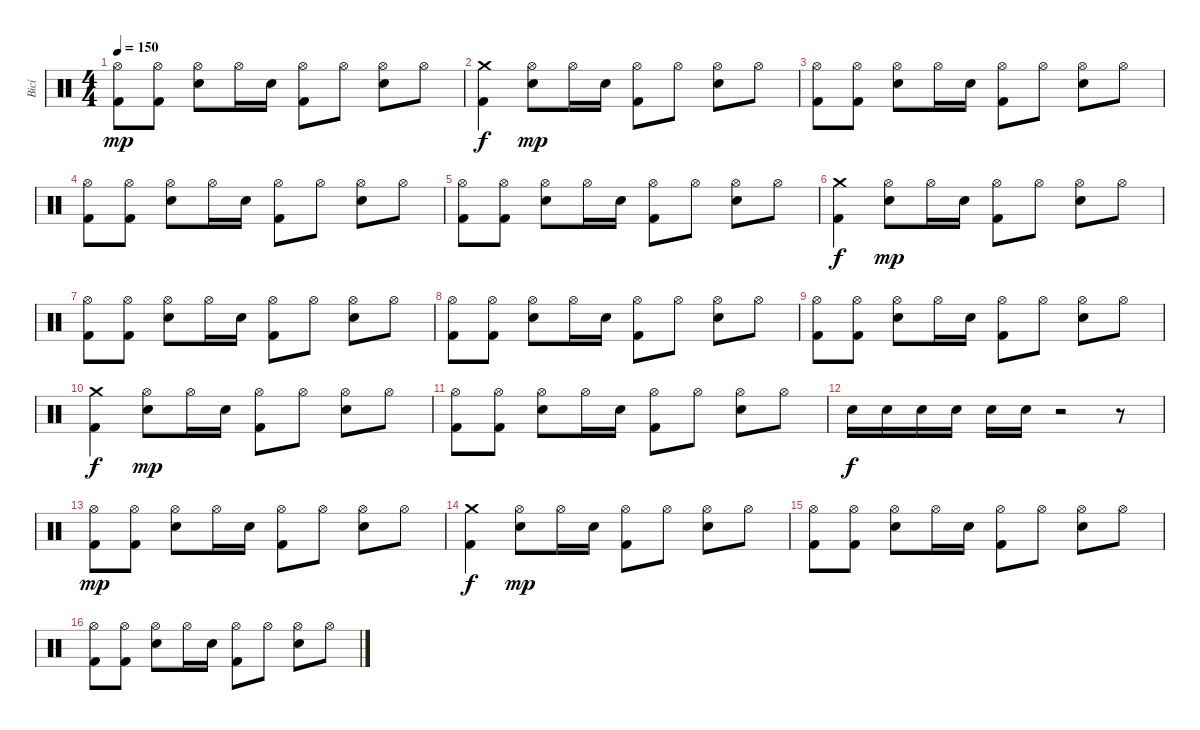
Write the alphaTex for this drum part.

\track ("Bicí" "Bicí") {instrument percussion}
\staff {score}
\articulation defaults
\ts (4 4)
\tempo 150
\clef neutral
\ks c
("Hi-Hat (open)" "Kick (hit) 2").8{dy mp} ("Hi-Hat (open)" "Kick (hit) 2").8 ("Hi-Hat (open)" "Electric Snare (hit)").8 "Hi-Hat (open)".16 "Electric Snare (hit)".16 ("Hi-Hat (open)" "Kick (hit) 2").8 "Hi-Hat (open)".8 ("Hi-Hat (open)" "Electric Snare (hit)").8 "Hi-Hat (open)".8 |
("Crash medium (hit)" "Kick (hit) 2").4{dy f} ("Hi-Hat (open)" "Electric Snare (hit)").8{dy mp} "Hi-Hat (open)".16 "Electric Snare (hit)".16 ("Hi-Hat (open)" "Kick (hit) 2").8 "Hi-Hat (open)".8 ("Hi-Hat (open)" "Electric Snare (hit)").8 "Hi-Hat (open)".8 |
("Hi-Hat (open)" "Kick (hit) 2").8 ("Hi-Hat (open)" "Kick (hit) 2").8 ("Hi-Hat (open)" "Electric Snare (hit)").8 "Hi-Hat (open)".16 "Electric Snare (hit)".16 ("Hi-Hat (open)" "Kick (hit) 2").8 "Hi-Hat (open)".8 ("Hi-Hat (open)" "Electric Snare (hit)").8 "Hi-Hat (open)".8 |
("Hi-Hat (open)" "Kick (hit) 2").8 ("Hi-Hat (open)" "Kick (hit) 2").8 ("Hi-Hat (open)" "Electric Snare (hit)").8 "Hi-Hat (open)".16 "Electric Snare (hit)".16 ("Hi-Hat (open)" "Kick (hit) 2").8 "Hi-Hat (open)".8 ("Hi-Hat (open)" "Electric Snare (hit)").8 "Hi-Hat (open)".8 |
("Hi-Hat (open)" "Kick (hit) 2").8 ("Hi-Hat (open)" "Kick (hit) 2").8 ("Hi-Hat (open)" "Electric Snare (hit)").8 "Hi-Hat (open)".16 "Electric Snare (hit)".16 ("Hi-Hat (open)" "Kick (hit) 2").8 "Hi-Hat (open)".8 ("Hi-Hat (open)" "Electric Snare (hit)").8 "Hi-Hat (open)".8 |
("Crash medium (hit)" "Kick (hit) 2").4{dy f} ("Hi-Hat (open)" "Electric Snare (hit)").8{dy mp} "Hi-Hat (open)".16 "Electric Snare (hit)".16 ("Hi-Hat (open)" "Kick (hit) 2").8 "Hi-Hat (open)".8 ("Hi-Hat (open)" "Electric Snare (hit)").8 "Hi-Hat (open)".8 |
("Hi-Hat (open)" "Kick (hit) 2").8 ("Hi-Hat (open)" "Kick (hit) 2").8 ("Hi-Hat (open)" "Electric Snare (hit)").8 "Hi-Hat (open)".16 "Electric Snare (hit)".16 ("Hi-Hat (open)" "Kick (hit) 2").8 "Hi-Hat (open)".8 ("Hi-Hat (open)" "Electric Snare (hit)").8 "Hi-Hat (open)".8 |
("Hi-Hat (open)" "Kick (hit) 2").8 ("Hi-Hat (open)" "Kick (hit) 2").8 ("Hi-Hat (open)" "Electric Snare (hit)").8 "Hi-Hat (open)".16 "Electric Snare (hit)".16 ("Hi-Hat (open)" "Kick (hit) 2").8 "Hi-Hat (open)".8 ("Hi-Hat (open)" "Electric Snare (hit)").8 "Hi-Hat (open)".8 |
("Hi-Hat (open)" "Kick (hit) 2").8 ("Hi-Hat (open)" "Kick (hit) 2").8 ("Hi-Hat (open)" "Electric Snare (hit)").8 "Hi-Hat (open)".16 "Electric Snare (hit)".16 ("Hi-Hat (open)" "Kick (hit) 2").8 "Hi-Hat (open)".8 ("Hi-Hat (open)" "Electric Snare (hit)").8 "Hi-Hat (open)".8 |
("Crash medium (hit)" "Kick (hit) 2").4{dy f} ("Hi-Hat (open)" "Electric Snare (hit)").8{dy mp} "Hi-Hat (open)".16 "Electric Snare (hit)".16 ("Hi-Hat (open)" "Kick (hit) 2").8 "Hi-Hat (open)".8 ("Hi-Hat (open)" "Electric Snare (hit)").8 "Hi-Hat (open)".8 |
("Hi-Hat (open)" "Kick (hit) 2").8 ("Hi-Hat (open)" "Kick (hit) 2").8 ("Hi-Hat (open)" "Electric Snare (hit)").8 "Hi-Hat (open)".16 "Electric Snare (hit)".16 ("Hi-Hat (open)" "Kick (hit) 2").8 "Hi-Hat (open)".8 ("Hi-Hat (open)" "Electric Snare (hit)").8 "Hi-Hat (open)".8 |
"Snare (hit) 2".16{dy f} "Snare (hit) 2".16 "Snare (hit) 2".16 "Snare (hit) 2".16 "Snare (hit) 2".16 "Snare (hit) 2".16 r.2 r.8 |
("Hi-Hat (open)" "Kick (hit) 2").8{dy mp} ("Hi-Hat (open)" "Kick (hit) 2").8 ("Hi-Hat (open)" "Electric Snare (hit)").8 "Hi-Hat (open)".16 "Electric Snare (hit)".16 ("Hi-Hat (open)" "Kick (hit) 2").8 "Hi-Hat (open)".8 ("Hi-Hat (open)" "Electric Snare (hit)").8 "Hi-Hat (open)".8 |
("Crash medium (hit)" "Kick (hit) 2").4{dy f} ("Hi-Hat (open)" "Electric Snare (hit)").8{dy mp} "Hi-Hat (open)".16 "Electric Snare (hit)".16 ("Hi-Hat (open)" "Kick (hit) 2").8 "Hi-Hat (open)".8 ("Hi-Hat (open)" "Electric Snare (hit)").8 "Hi-Hat (open)".8 |
("Hi-Hat (open)" "Kick (hit) 2").8 ("Hi-Hat (open)" "Kick (hit) 2").8 ("Hi-Hat (open)" "Electric Snare (hit)").8 "Hi-Hat (open)".16 "Electric Snare (hit)".16 ("Hi-Hat (open)" "Kick (hit) 2").8 "Hi-Hat (open)".8 ("Hi-Hat (open)" "Electric Snare (hit)").8 "Hi-Hat (open)".8 |
("Hi-Hat (open)" "Kick (hit) 2").8 ("Hi-Hat (open)" "Kick (hit) 2").8 ("Hi-Hat (open)" "Electric Snare (hit)").8 "Hi-Hat (open)".16 "Electric Snare (hit)".16 ("Hi-Hat (open)" "Kick (hit) 2").8 "Hi-Hat (open)".8 ("Hi-Hat (open)" "Electric Snare (hit)").8 "Hi-Hat (open)".8
